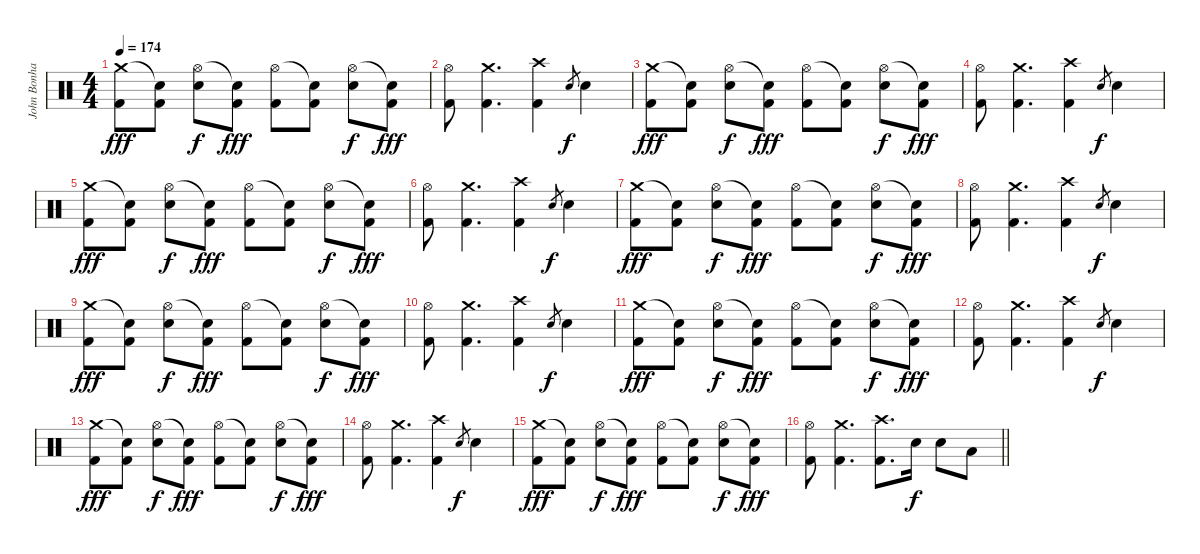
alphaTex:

\track ("John Bonham - Drums" "John Bonha") {instrument percussion}
\staff {score}
\articulation defaults
\ts (4 4)
\tempo 174
\clef neutral
\ks c
("Crash medium (hit)" "Kick (hit) 2").8{dy fff} ("Snare (hit)"{t} "Kick (hit) 2").8 ("Hi-Hat (open)" "Snare (hit) 2").8{dy f} ("Snare (hit)"{t} "Kick (hit) 2").8{dy fff} ("Hi-Hat (open)" "Kick (hit) 2").8 ("Snare (hit)"{t} "Kick (hit) 2").8 ("Hi-Hat (open)" "Snare (hit) 2").8{dy f} ("Snare (hit)"{t} "Kick (hit) 2").8{dy fff} |
("Hi-Hat (open)" "Kick (hit) 2").8 ("Crash medium (hit)" "Kick (hit) 2").4{d} ("Crash high (hit)" "Kick (hit) 2").4 "Snare (hit) 2".8{gr dy f} "Snare (hit) 2".4 |
("Crash medium (hit)" "Kick (hit) 2").8{dy fff} ("Snare (hit)"{t} "Kick (hit) 2").8 ("Hi-Hat (open)" "Snare (hit) 2").8{dy f} ("Snare (hit)"{t} "Kick (hit) 2").8{dy fff} ("Hi-Hat (open)" "Kick (hit) 2").8 ("Snare (hit)"{t} "Kick (hit) 2").8 ("Hi-Hat (open)" "Snare (hit) 2").8{dy f} ("Snare (hit)"{t} "Kick (hit) 2").8{dy fff} |
("Hi-Hat (open)" "Kick (hit) 2").8 ("Crash medium (hit)" "Kick (hit) 2").4{d} ("Crash high (hit)" "Kick (hit) 2").4 "Snare (hit) 2".8{gr dy f} "Snare (hit) 2".4 |
("Crash medium (hit)" "Kick (hit) 2").8{dy fff} ("Snare (hit)"{t} "Kick (hit) 2").8 ("Hi-Hat (open)" "Snare (hit) 2").8{dy f} ("Snare (hit)"{t} "Kick (hit) 2").8{dy fff} ("Hi-Hat (open)" "Kick (hit) 2").8 ("Snare (hit)"{t} "Kick (hit) 2").8 ("Hi-Hat (open)" "Snare (hit) 2").8{dy f} ("Snare (hit)"{t} "Kick (hit) 2").8{dy fff} |
("Hi-Hat (open)" "Kick (hit) 2").8 ("Crash medium (hit)" "Kick (hit) 2").4{d} ("Crash high (hit)" "Kick (hit) 2").4 "Snare (hit) 2".8{gr dy f} "Snare (hit) 2".4 |
("Crash medium (hit)" "Kick (hit) 2").8{dy fff} ("Snare (hit)"{t} "Kick (hit) 2").8 ("Hi-Hat (open)" "Snare (hit) 2").8{dy f} ("Snare (hit)"{t} "Kick (hit) 2").8{dy fff} ("Hi-Hat (open)" "Kick (hit) 2").8 ("Snare (hit)"{t} "Kick (hit) 2").8 ("Hi-Hat (open)" "Snare (hit) 2").8{dy f} ("Snare (hit)"{t} "Kick (hit) 2").8{dy fff} |
("Hi-Hat (open)" "Kick (hit) 2").8 ("Crash medium (hit)" "Kick (hit) 2").4{d} ("Crash high (hit)" "Kick (hit) 2").4 "Snare (hit) 2".8{gr dy f} "Snare (hit) 2".4 |
("Crash medium (hit)" "Kick (hit) 2").8{dy fff} ("Snare (hit)"{t} "Kick (hit) 2").8 ("Hi-Hat (open)" "Snare (hit) 2").8{dy f} ("Snare (hit)"{t} "Kick (hit) 2").8{dy fff} ("Hi-Hat (open)" "Kick (hit) 2").8 ("Snare (hit)"{t} "Kick (hit) 2").8 ("Hi-Hat (open)" "Snare (hit) 2").8{dy f} ("Snare (hit)"{t} "Kick (hit) 2").8{dy fff} |
("Hi-Hat (open)" "Kick (hit) 2").8 ("Crash medium (hit)" "Kick (hit) 2").4{d} ("Crash high (hit)" "Kick (hit) 2").4 "Snare (hit) 2".8{gr dy f} "Snare (hit) 2".4 |
("Crash medium (hit)" "Kick (hit) 2").8{dy fff} ("Snare (hit)"{t} "Kick (hit) 2").8 ("Hi-Hat (open)" "Snare (hit) 2").8{dy f} ("Snare (hit)"{t} "Kick (hit) 2").8{dy fff} ("Hi-Hat (open)" "Kick (hit) 2").8 ("Snare (hit)"{t} "Kick (hit) 2").8 ("Hi-Hat (open)" "Snare (hit) 2").8{dy f} ("Snare (hit)"{t} "Kick (hit) 2").8{dy fff} |
("Hi-Hat (open)" "Kick (hit) 2").8 ("Crash medium (hit)" "Kick (hit) 2").4{d} ("Crash high (hit)" "Kick (hit) 2").4 "Snare (hit) 2".8{gr dy f} "Snare (hit) 2".4 |
("Crash medium (hit)" "Kick (hit) 2").8{dy fff} ("Snare (hit)"{t} "Kick (hit) 2").8 ("Hi-Hat (open)" "Snare (hit) 2").8{dy f} ("Snare (hit)"{t} "Kick (hit) 2").8{dy fff} ("Hi-Hat (open)" "Kick (hit) 2").8 ("Snare (hit)"{t} "Kick (hit) 2").8 ("Hi-Hat (open)" "Snare (hit) 2").8{dy f} ("Snare (hit)"{t} "Kick (hit) 2").8{dy fff} |
("Hi-Hat (open)" "Kick (hit) 2").8 ("Crash medium (hit)" "Kick (hit) 2").4{d} ("Crash high (hit)" "Kick (hit) 2").4 "Snare (hit) 2".8{gr dy f} "Snare (hit) 2".4 |
("Crash medium (hit)" "Kick (hit) 2").8{dy fff} ("Snare (hit)"{t} "Kick (hit) 2").8 ("Hi-Hat (open)" "Snare (hit) 2").8{dy f} ("Snare (hit)"{t} "Kick (hit) 2").8{dy fff} ("Hi-Hat (open)" "Kick (hit) 2").8 ("Snare (hit)"{t} "Kick (hit) 2").8 ("Hi-Hat (open)" "Snare (hit) 2").8{dy f} ("Snare (hit)"{t} "Kick (hit) 2").8{dy fff} |
\barLineRight lightlight
("Hi-Hat (open)" "Kick (hit) 2").8 ("Crash medium (hit)" "Kick (hit) 2").4{d} ("Crash high (hit)" "Kick (hit) 2").8{d} "Snare (hit) 2".16{dy f} "Snare (hit) 2".8 "Low Tom (hit)".8
